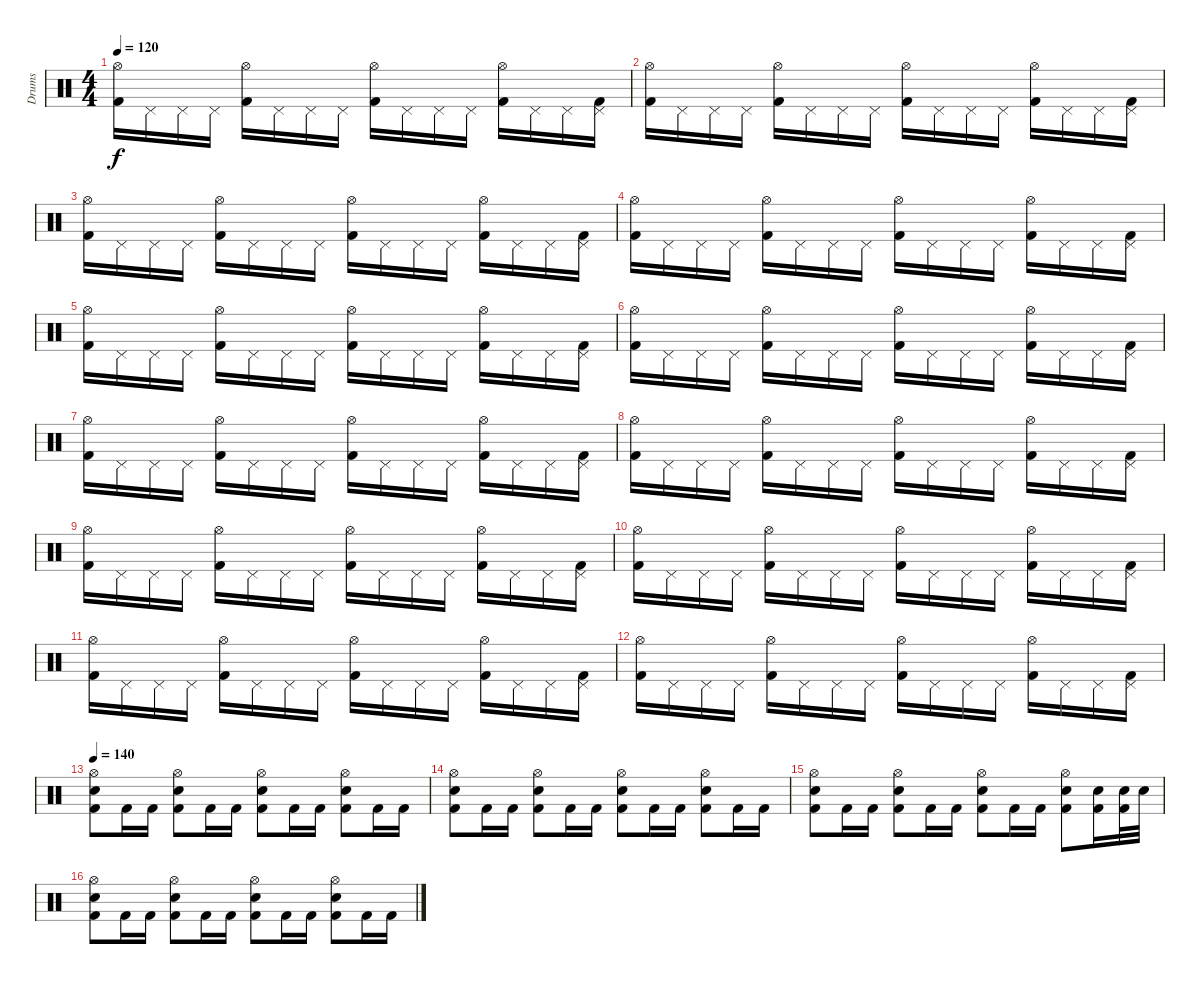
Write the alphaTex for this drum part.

\track ("Drums" "Drums") {instrument percussion}
\staff {score}
\articulation defaults
\ts (4 4)
\tempo 120
\clef neutral
\ks c
("Hi-Hat (open)" "Kick (hit) 2").16{dy f} "Pedal Hi-Hat (hit)".16 "Pedal Hi-Hat (hit)".16 "Pedal Hi-Hat (hit)".16 ("Hi-Hat (open)" "Kick (hit) 2").16 "Pedal Hi-Hat (hit)".16 "Pedal Hi-Hat (hit)".16 "Pedal Hi-Hat (hit)".16 ("Hi-Hat (open)" "Kick (hit) 2").16 "Pedal Hi-Hat (hit)".16 "Pedal Hi-Hat (hit)".16 "Pedal Hi-Hat (hit)".16 ("Hi-Hat (open)" "Kick (hit) 2").16 "Pedal Hi-Hat (hit)".16 "Pedal Hi-Hat (hit)".16 ("Pedal Hi-Hat (hit)" "Kick (hit) 2").16 |
("Hi-Hat (open)" "Kick (hit) 2").16 "Pedal Hi-Hat (hit)".16 "Pedal Hi-Hat (hit)".16 "Pedal Hi-Hat (hit)".16 ("Hi-Hat (open)" "Kick (hit) 2").16 "Pedal Hi-Hat (hit)".16 "Pedal Hi-Hat (hit)".16 "Pedal Hi-Hat (hit)".16 ("Hi-Hat (open)" "Kick (hit) 2").16 "Pedal Hi-Hat (hit)".16 "Pedal Hi-Hat (hit)".16 "Pedal Hi-Hat (hit)".16 ("Hi-Hat (open)" "Kick (hit) 2").16 "Pedal Hi-Hat (hit)".16 "Pedal Hi-Hat (hit)".16 ("Pedal Hi-Hat (hit)" "Kick (hit) 2").16 |
("Hi-Hat (open)" "Kick (hit) 2").16 "Pedal Hi-Hat (hit)".16 "Pedal Hi-Hat (hit)".16 "Pedal Hi-Hat (hit)".16 ("Hi-Hat (open)" "Kick (hit) 2").16 "Pedal Hi-Hat (hit)".16 "Pedal Hi-Hat (hit)".16 "Pedal Hi-Hat (hit)".16 ("Hi-Hat (open)" "Kick (hit) 2").16 "Pedal Hi-Hat (hit)".16 "Pedal Hi-Hat (hit)".16 "Pedal Hi-Hat (hit)".16 ("Hi-Hat (open)" "Kick (hit) 2").16 "Pedal Hi-Hat (hit)".16 "Pedal Hi-Hat (hit)".16 ("Pedal Hi-Hat (hit)" "Kick (hit) 2").16 |
("Hi-Hat (open)" "Kick (hit) 2").16 "Pedal Hi-Hat (hit)".16 "Pedal Hi-Hat (hit)".16 "Pedal Hi-Hat (hit)".16 ("Hi-Hat (open)" "Kick (hit) 2").16 "Pedal Hi-Hat (hit)".16 "Pedal Hi-Hat (hit)".16 "Pedal Hi-Hat (hit)".16 ("Hi-Hat (open)" "Kick (hit) 2").16 "Pedal Hi-Hat (hit)".16 "Pedal Hi-Hat (hit)".16 "Pedal Hi-Hat (hit)".16 ("Hi-Hat (open)" "Kick (hit) 2").16 "Pedal Hi-Hat (hit)".16 "Pedal Hi-Hat (hit)".16 ("Pedal Hi-Hat (hit)" "Kick (hit) 2").16 |
("Hi-Hat (open)" "Kick (hit) 2").16 "Pedal Hi-Hat (hit)".16 "Pedal Hi-Hat (hit)".16 "Pedal Hi-Hat (hit)".16 ("Hi-Hat (open)" "Kick (hit) 2").16 "Pedal Hi-Hat (hit)".16 "Pedal Hi-Hat (hit)".16 "Pedal Hi-Hat (hit)".16 ("Hi-Hat (open)" "Kick (hit) 2").16 "Pedal Hi-Hat (hit)".16 "Pedal Hi-Hat (hit)".16 "Pedal Hi-Hat (hit)".16 ("Hi-Hat (open)" "Kick (hit) 2").16 "Pedal Hi-Hat (hit)".16 "Pedal Hi-Hat (hit)".16 ("Pedal Hi-Hat (hit)" "Kick (hit) 2").16 |
("Hi-Hat (open)" "Kick (hit) 2").16 "Pedal Hi-Hat (hit)".16 "Pedal Hi-Hat (hit)".16 "Pedal Hi-Hat (hit)".16 ("Hi-Hat (open)" "Kick (hit) 2").16 "Pedal Hi-Hat (hit)".16 "Pedal Hi-Hat (hit)".16 "Pedal Hi-Hat (hit)".16 ("Hi-Hat (open)" "Kick (hit) 2").16 "Pedal Hi-Hat (hit)".16 "Pedal Hi-Hat (hit)".16 "Pedal Hi-Hat (hit)".16 ("Hi-Hat (open)" "Kick (hit) 2").16 "Pedal Hi-Hat (hit)".16 "Pedal Hi-Hat (hit)".16 ("Pedal Hi-Hat (hit)" "Kick (hit) 2").16 |
("Hi-Hat (open)" "Kick (hit) 2").16 "Pedal Hi-Hat (hit)".16 "Pedal Hi-Hat (hit)".16 "Pedal Hi-Hat (hit)".16 ("Hi-Hat (open)" "Kick (hit) 2").16 "Pedal Hi-Hat (hit)".16 "Pedal Hi-Hat (hit)".16 "Pedal Hi-Hat (hit)".16 ("Hi-Hat (open)" "Kick (hit) 2").16 "Pedal Hi-Hat (hit)".16 "Pedal Hi-Hat (hit)".16 "Pedal Hi-Hat (hit)".16 ("Hi-Hat (open)" "Kick (hit) 2").16 "Pedal Hi-Hat (hit)".16 "Pedal Hi-Hat (hit)".16 ("Pedal Hi-Hat (hit)" "Kick (hit) 2").16 |
("Hi-Hat (open)" "Kick (hit) 2").16 "Pedal Hi-Hat (hit)".16 "Pedal Hi-Hat (hit)".16 "Pedal Hi-Hat (hit)".16 ("Hi-Hat (open)" "Kick (hit) 2").16 "Pedal Hi-Hat (hit)".16 "Pedal Hi-Hat (hit)".16 "Pedal Hi-Hat (hit)".16 ("Hi-Hat (open)" "Kick (hit) 2").16 "Pedal Hi-Hat (hit)".16 "Pedal Hi-Hat (hit)".16 "Pedal Hi-Hat (hit)".16 ("Hi-Hat (open)" "Kick (hit) 2").16 "Pedal Hi-Hat (hit)".16 "Pedal Hi-Hat (hit)".16 ("Pedal Hi-Hat (hit)" "Kick (hit) 2").16 |
("Hi-Hat (open)" "Kick (hit) 2").16 "Pedal Hi-Hat (hit)".16 "Pedal Hi-Hat (hit)".16 "Pedal Hi-Hat (hit)".16 ("Hi-Hat (open)" "Kick (hit) 2").16 "Pedal Hi-Hat (hit)".16 "Pedal Hi-Hat (hit)".16 "Pedal Hi-Hat (hit)".16 ("Hi-Hat (open)" "Kick (hit) 2").16 "Pedal Hi-Hat (hit)".16 "Pedal Hi-Hat (hit)".16 "Pedal Hi-Hat (hit)".16 ("Hi-Hat (open)" "Kick (hit) 2").16 "Pedal Hi-Hat (hit)".16 "Pedal Hi-Hat (hit)".16 ("Pedal Hi-Hat (hit)" "Kick (hit) 2").16 |
("Hi-Hat (open)" "Kick (hit) 2").16 "Pedal Hi-Hat (hit)".16 "Pedal Hi-Hat (hit)".16 "Pedal Hi-Hat (hit)".16 ("Hi-Hat (open)" "Kick (hit) 2").16 "Pedal Hi-Hat (hit)".16 "Pedal Hi-Hat (hit)".16 "Pedal Hi-Hat (hit)".16 ("Hi-Hat (open)" "Kick (hit) 2").16 "Pedal Hi-Hat (hit)".16 "Pedal Hi-Hat (hit)".16 "Pedal Hi-Hat (hit)".16 ("Hi-Hat (open)" "Kick (hit) 2").16 "Pedal Hi-Hat (hit)".16 "Pedal Hi-Hat (hit)".16 ("Pedal Hi-Hat (hit)" "Kick (hit) 2").16 |
("Hi-Hat (open)" "Kick (hit) 2").16 "Pedal Hi-Hat (hit)".16 "Pedal Hi-Hat (hit)".16 "Pedal Hi-Hat (hit)".16 ("Hi-Hat (open)" "Kick (hit) 2").16 "Pedal Hi-Hat (hit)".16 "Pedal Hi-Hat (hit)".16 "Pedal Hi-Hat (hit)".16 ("Hi-Hat (open)" "Kick (hit) 2").16 "Pedal Hi-Hat (hit)".16 "Pedal Hi-Hat (hit)".16 "Pedal Hi-Hat (hit)".16 ("Hi-Hat (open)" "Kick (hit) 2").16 "Pedal Hi-Hat (hit)".16 "Pedal Hi-Hat (hit)".16 ("Pedal Hi-Hat (hit)" "Kick (hit) 2").16 |
("Hi-Hat (open)" "Kick (hit) 2").16 "Pedal Hi-Hat (hit)".16 "Pedal Hi-Hat (hit)".16 "Pedal Hi-Hat (hit)".16 ("Hi-Hat (open)" "Kick (hit) 2").16 "Pedal Hi-Hat (hit)".16 "Pedal Hi-Hat (hit)".16 "Pedal Hi-Hat (hit)".16 ("Hi-Hat (open)" "Kick (hit) 2").16 "Pedal Hi-Hat (hit)".16 "Pedal Hi-Hat (hit)".16 "Pedal Hi-Hat (hit)".16 ("Hi-Hat (open)" "Kick (hit) 2").16 "Pedal Hi-Hat (hit)".16 "Pedal Hi-Hat (hit)".16 ("Pedal Hi-Hat (hit)" "Kick (hit) 2").16 |
\tempo 140
("Hi-Hat (open)" "Snare (hit) 2" "Kick (hit) 2").8 "Kick (hit) 2".16 "Kick (hit) 2".16 ("Hi-Hat (open)" "Snare (hit) 2" "Kick (hit) 2").8 "Kick (hit) 2".16 "Kick (hit) 2".16 ("Hi-Hat (open)" "Snare (hit) 2" "Kick (hit) 2").8 "Kick (hit) 2".16 "Kick (hit) 2".16 ("Hi-Hat (open)" "Snare (hit) 2" "Kick (hit) 2").8 "Kick (hit) 2".16 "Kick (hit) 2".16 |
("Hi-Hat (open)" "Snare (hit) 2" "Kick (hit) 2").8 "Kick (hit) 2".16 "Kick (hit) 2".16 ("Hi-Hat (open)" "Snare (hit) 2" "Kick (hit) 2").8 "Kick (hit) 2".16 "Kick (hit) 2".16 ("Hi-Hat (open)" "Snare (hit) 2" "Kick (hit) 2").8 "Kick (hit) 2".16 "Kick (hit) 2".16 ("Hi-Hat (open)" "Snare (hit) 2" "Kick (hit) 2").8 "Kick (hit) 2".16 "Kick (hit) 2".16 |
("Hi-Hat (open)" "Snare (hit) 2" "Kick (hit) 2").8 "Kick (hit) 2".16 "Kick (hit) 2".16 ("Hi-Hat (open)" "Snare (hit) 2" "Kick (hit) 2").8 "Kick (hit) 2".16 "Kick (hit) 2".16 ("Hi-Hat (open)" "Snare (hit) 2" "Kick (hit) 2").8 "Kick (hit) 2".16 "Kick (hit) 2".16 ("Hi-Hat (open)" "Snare (hit) 2" "Kick (hit) 2").8 ("Snare (hit) 2" "Kick (hit) 2").16 ("Snare (hit) 2" "Kick (hit) 2").32 "Snare (hit) 2".32 |
("Hi-Hat (open)" "Snare (hit) 2" "Kick (hit) 2").8 "Kick (hit) 2".16 "Kick (hit) 2".16 ("Hi-Hat (open)" "Snare (hit) 2" "Kick (hit) 2").8 "Kick (hit) 2".16 "Kick (hit) 2".16 ("Hi-Hat (open)" "Snare (hit) 2" "Kick (hit) 2").8 "Kick (hit) 2".16 "Kick (hit) 2".16 ("Hi-Hat (open)" "Snare (hit) 2" "Kick (hit) 2").8 "Kick (hit) 2".16 "Kick (hit) 2".16
